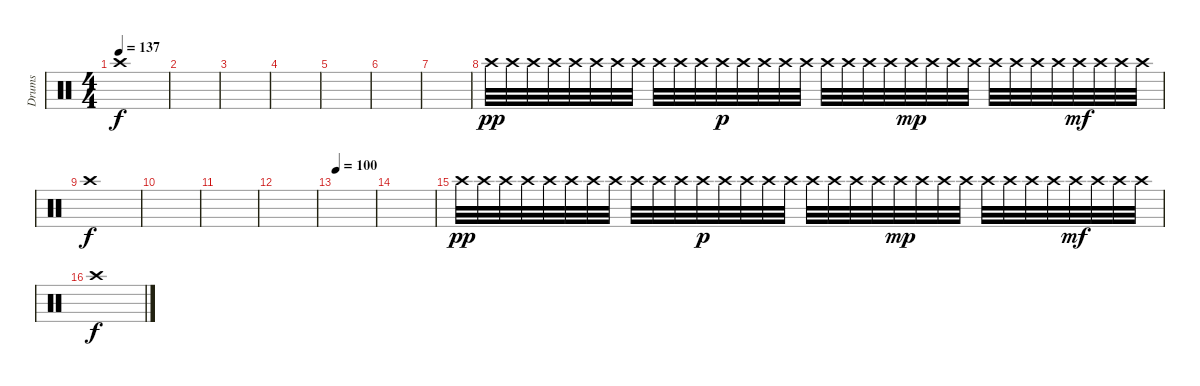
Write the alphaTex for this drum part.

\track ("Drums" "Drums") {instrument percussion}
\staff {score}
\articulation defaults
\ts (4 4)
\tempo 137
\clef neutral
\ks c "Crash high (hit)".1{dy f}
|
|
|
|
|
|
|
"Crash high (hit)".32{dy pp} "Crash high (hit)".32 "Crash high (hit)".32 "Crash high (hit)".32 "Crash high (hit)".32 "Crash high (hit)".32 "Crash high (hit)".32 "Crash high (hit)".32 "Crash high (hit)".32 "Crash high (hit)".32 "Crash high (hit)".32 "Crash high (hit)".32{dy p} "Crash high (hit)".32 "Crash high (hit)".32 "Crash high (hit)".32 "Crash high (hit)".32 "Crash high (hit)".32 "Crash high (hit)".32 "Crash high (hit)".32 "Crash high (hit)".32 "Crash high (hit)".32{dy mp} "Crash high (hit)".32 "Crash high (hit)".32 "Crash high (hit)".32 "Crash high (hit)".32 "Crash high (hit)".32 "Crash high (hit)".32 "Crash high (hit)".32 "Crash high (hit)".32{dy mf} "Crash high (hit)".32 "Crash high (hit)".32 "Crash high (hit)".32 |
"Crash high (hit)".1{dy f} |
|
|
|
\tempo 100
|
|
"Crash high (hit)".32{dy pp} "Crash high (hit)".32 "Crash high (hit)".32 "Crash high (hit)".32 "Crash high (hit)".32 "Crash high (hit)".32 "Crash high (hit)".32 "Crash high (hit)".32 "Crash high (hit)".32 "Crash high (hit)".32 "Crash high (hit)".32 "Crash high (hit)".32{dy p} "Crash high (hit)".32 "Crash high (hit)".32 "Crash high (hit)".32 "Crash high (hit)".32 "Crash high (hit)".32 "Crash high (hit)".32 "Crash high (hit)".32 "Crash high (hit)".32 "Crash high (hit)".32{dy mp} "Crash high (hit)".32 "Crash high (hit)".32 "Crash high (hit)".32 "Crash high (hit)".32 "Crash high (hit)".32 "Crash high (hit)".32 "Crash high (hit)".32 "Crash high (hit)".32{dy mf} "Crash high (hit)".32 "Crash high (hit)".32 "Crash high (hit)".32 |
"Crash high (hit)".1{dy f}
